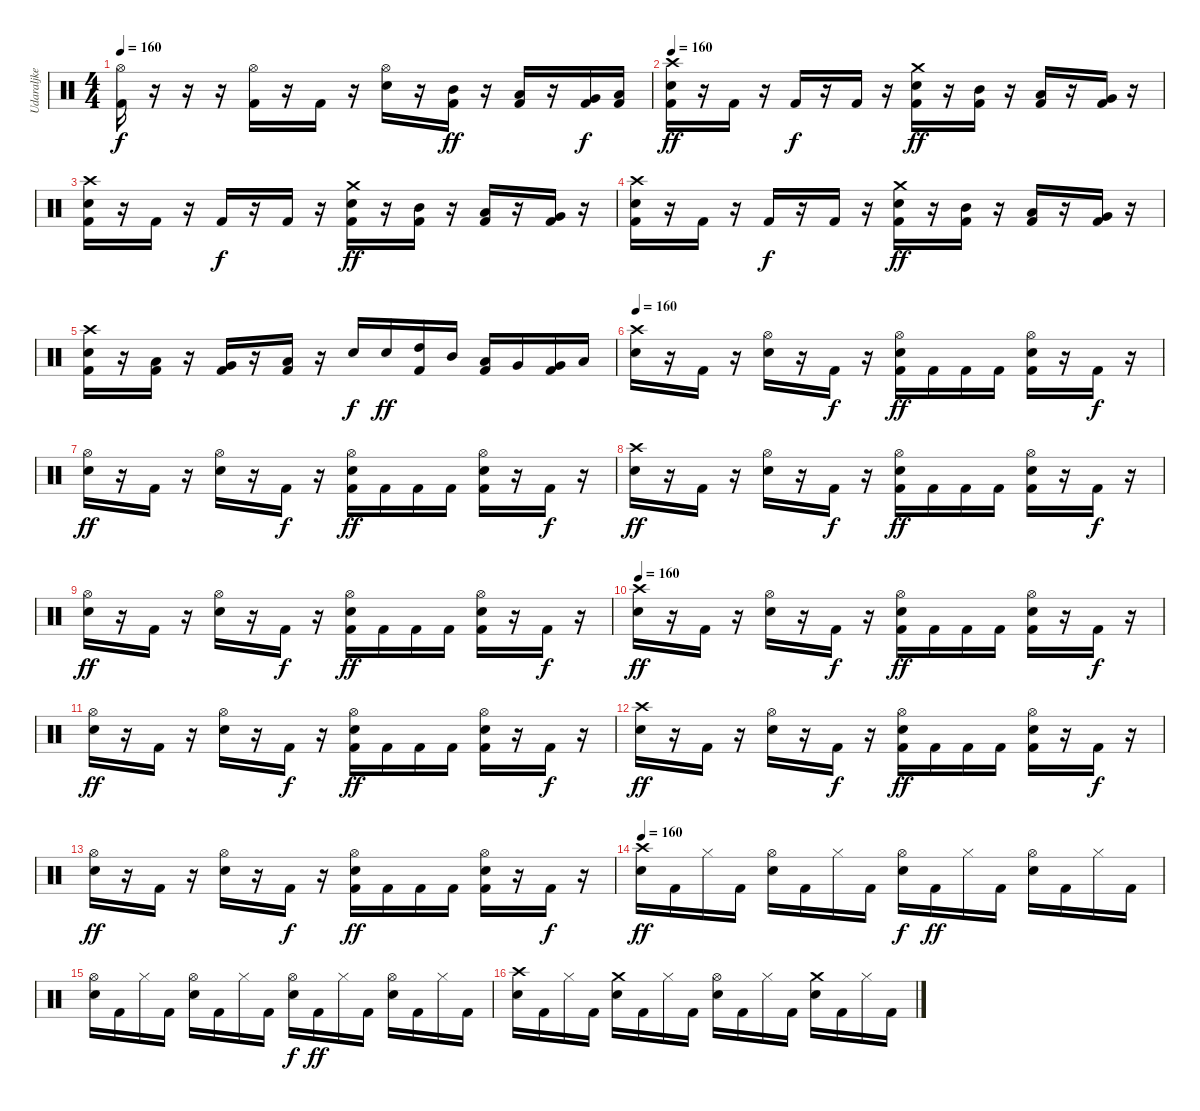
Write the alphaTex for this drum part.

\track ("Udaraljke" "Udaraljke") {instrument percussion}
\staff {score}
\articulation defaults
\ts (4 4)
\tempo 160
\clef neutral
\ks c
("Hi-Hat (open)" "Kick (hit) 2").16{dy f} r.16 r.16 r.16 ("Hi-Hat (open)" "Kick (hit) 2").16 r.16 "Kick (hit) 2".16 r.16 ("Hi-Hat (open)" "Snare (hit) 2").16 r.16 ("Mid Tom (hit)" "Kick (hit) 2").16{dy ff} r.16 ("Low Tom (hit)" "Kick (hit) 2").16 r.16 ("Very Low Tom (hit)" "Kick (hit) 2").16{dy f} ("Low Floor Tom (hit)" "Kick (hit) 2").16 |
\tempo 160
("Crash high (hit)" "Snare (hit) 2" "Kick (hit) 2").16{dy ff} r.16 "Kick (hit) 2".16 r.16 "Kick (hit) 2".16{dy f} r.16 "Kick (hit) 2".16 r.16 ("Crash medium (hit)" "Snare (hit) 2" "Kick (hit) 2").16{dy ff} r.16 ("Mid Tom (hit)" "Kick (hit) 2").16 r.16 ("Low Tom (hit)" "Kick (hit) 2").16 r.16 ("Very Low Tom (hit)" "Kick (hit) 2").16 r.16 |
("Crash high (hit)" "Snare (hit) 2" "Kick (hit) 2").16 r.16 "Kick (hit) 2".16 r.16 "Kick (hit) 2".16{dy f} r.16 "Kick (hit) 2".16 r.16 ("Crash medium (hit)" "Snare (hit) 2" "Kick (hit) 2").16{dy ff} r.16 ("Mid Tom (hit)" "Kick (hit) 2").16 r.16 ("Low Tom (hit)" "Kick (hit) 2").16 r.16 ("Very Low Tom (hit)" "Kick (hit) 2").16 r.16 |
("Crash high (hit)" "Snare (hit) 2" "Kick (hit) 2").16 r.16 "Kick (hit) 2".16 r.16 "Kick (hit) 2".16{dy f} r.16 "Kick (hit) 2".16 r.16 ("Crash medium (hit)" "Snare (hit) 2" "Kick (hit) 2").16{dy ff} r.16 ("Mid Tom (hit)" "Kick (hit) 2").16 r.16 ("Low Tom (hit)" "Kick (hit) 2").16 r.16 ("Very Low Tom (hit)" "Kick (hit) 2").16 r.16 |
("Crash high (hit)" "Snare (hit) 2" "Kick (hit) 2").16 r.16 ("Low Tom (hit)" "Kick (hit) 2").16 r.16 ("Very Low Tom (hit)" "Kick (hit) 2").16 r.16 ("Low Floor Tom (hit)" "Kick (hit) 2").16 r.16 "Snare (hit) 2".16{dy f} "Snare (hit) 2".16{dy ff} ("High Tom (hit)" "Kick (hit) 2").16 "Mid Tom (hit)".16 ("Low Tom (hit)" "Kick (hit) 2").16 "Very Low Tom (hit)".16 ("Very Low Tom (hit)" "Kick (hit) 2").16 "Low Floor Tom (hit)".16 |
\tempo 160
("Crash high (hit)" "Snare (hit) 2").16 r.16 "Kick (hit) 2".16 r.16 ("Hi-Hat (open)" "Snare (hit) 2").16 r.16 "Kick (hit) 2".16{dy f} r.16 ("Hi-Hat (open)" "Snare (hit) 2" "Kick (hit) 2").16{dy ff} "Kick (hit) 2".16 "Kick (hit) 2".16 "Kick (hit) 2".16 ("Hi-Hat (open)" "Snare (hit) 2" "Kick (hit) 2").16 r.16 "Kick (hit) 2".16{dy f} r.16 |
("Hi-Hat (open)" "Snare (hit) 2").16{dy ff} r.16 "Kick (hit) 2".16 r.16 ("Hi-Hat (open)" "Snare (hit) 2").16 r.16 "Kick (hit) 2".16{dy f} r.16 ("Hi-Hat (open)" "Snare (hit) 2" "Kick (hit) 2").16{dy ff} "Kick (hit) 2".16 "Kick (hit) 2".16 "Kick (hit) 2".16 ("Hi-Hat (open)" "Snare (hit) 2" "Kick (hit) 2").16 r.16 "Kick (hit) 2".16{dy f} r.16 |
("Crash high (hit)" "Snare (hit) 2").16{dy ff} r.16 "Kick (hit) 2".16 r.16 ("Hi-Hat (open)" "Snare (hit) 2").16 r.16 "Kick (hit) 2".16{dy f} r.16 ("Hi-Hat (open)" "Snare (hit) 2" "Kick (hit) 2").16{dy ff} "Kick (hit) 2".16 "Kick (hit) 2".16 "Kick (hit) 2".16 ("Hi-Hat (open)" "Snare (hit) 2" "Kick (hit) 2").16 r.16 "Kick (hit) 2".16{dy f} r.16 |
("Hi-Hat (open)" "Snare (hit) 2").16{dy ff} r.16 "Kick (hit) 2".16 r.16 ("Hi-Hat (open)" "Snare (hit) 2").16 r.16 "Kick (hit) 2".16{dy f} r.16 ("Hi-Hat (open)" "Snare (hit) 2" "Kick (hit) 2").16{dy ff} "Kick (hit) 2".16 "Kick (hit) 2".16 "Kick (hit) 2".16 ("Hi-Hat (open)" "Snare (hit) 2" "Kick (hit) 2").16 r.16 "Kick (hit) 2".16{dy f} r.16 |
\tempo 160
("Crash high (hit)" "Snare (hit) 2").16{dy ff} r.16 "Kick (hit) 2".16 r.16 ("Hi-Hat (open)" "Snare (hit) 2").16 r.16 "Kick (hit) 2".16{dy f} r.16 ("Hi-Hat (open)" "Snare (hit) 2" "Kick (hit) 2").16{dy ff} "Kick (hit) 2".16 "Kick (hit) 2".16 "Kick (hit) 2".16 ("Hi-Hat (open)" "Snare (hit) 2" "Kick (hit) 2").16 r.16 "Kick (hit) 2".16{dy f} r.16 |
("Hi-Hat (open)" "Snare (hit) 2").16{dy ff} r.16 "Kick (hit) 2".16 r.16 ("Hi-Hat (open)" "Snare (hit) 2").16 r.16 "Kick (hit) 2".16{dy f} r.16 ("Hi-Hat (open)" "Snare (hit) 2" "Kick (hit) 2").16{dy ff} "Kick (hit) 2".16 "Kick (hit) 2".16 "Kick (hit) 2".16 ("Hi-Hat (open)" "Snare (hit) 2" "Kick (hit) 2").16 r.16 "Kick (hit) 2".16{dy f} r.16 |
("Crash high (hit)" "Snare (hit) 2").16{dy ff} r.16 "Kick (hit) 2".16 r.16 ("Hi-Hat (open)" "Snare (hit) 2").16 r.16 "Kick (hit) 2".16{dy f} r.16 ("Hi-Hat (open)" "Snare (hit) 2" "Kick (hit) 2").16{dy ff} "Kick (hit) 2".16 "Kick (hit) 2".16 "Kick (hit) 2".16 ("Hi-Hat (open)" "Snare (hit) 2" "Kick (hit) 2").16 r.16 "Kick (hit) 2".16{dy f} r.16 |
("Hi-Hat (open)" "Snare (hit) 2").16{dy ff} r.16 "Kick (hit) 2".16 r.16 ("Hi-Hat (open)" "Snare (hit) 2").16 r.16 "Kick (hit) 2".16{dy f} r.16 ("Hi-Hat (open)" "Snare (hit) 2" "Kick (hit) 2").16{dy ff} "Kick (hit) 2".16 "Kick (hit) 2".16 "Kick (hit) 2".16 ("Hi-Hat (open)" "Snare (hit) 2" "Kick (hit) 2").16 r.16 "Kick (hit) 2".16{dy f} r.16 |
\tempo 160
("Crash high (hit)" "Snare (hit) 2").16{dy ff} "Kick (hit) 2".16 "Hi-Hat (closed)".16 "Kick (hit) 2".16 ("Hi-Hat (open)" "Snare (hit) 2").16 "Kick (hit) 2".16 "Hi-Hat (closed)".16 "Kick (hit) 2".16 ("Hi-Hat (open)" "Snare (hit) 2").16{dy f} "Kick (hit) 2".16{dy ff} "Hi-Hat (closed)".16 "Kick (hit) 2".16 ("Hi-Hat (open)" "Snare (hit) 2").16 "Kick (hit) 2".16 "Hi-Hat (closed)".16 "Kick (hit) 2".16 |
("Hi-Hat (open)" "Snare (hit) 2").16 "Kick (hit) 2".16 "Hi-Hat (closed)".16 "Kick (hit) 2".16 ("Hi-Hat (open)" "Snare (hit) 2").16 "Kick (hit) 2".16 "Hi-Hat (closed)".16 "Kick (hit) 2".16 ("Hi-Hat (open)" "Snare (hit) 2").16{dy f} "Kick (hit) 2".16{dy ff} "Hi-Hat (closed)".16 "Kick (hit) 2".16 ("Hi-Hat (open)" "Snare (hit) 2").16 "Kick (hit) 2".16 "Hi-Hat (closed)".16 "Kick (hit) 2".16 |
("Crash high (hit)" "Snare (hit) 2").16 "Kick (hit) 2".16 "Hi-Hat (closed)".16 "Kick (hit) 2".16 ("Crash medium (hit)" "Snare (hit) 2").16 "Kick (hit) 2".16 "Hi-Hat (closed)".16 "Kick (hit) 2".16 ("Hi-Hat (open)" "Snare (hit) 2").16 "Kick (hit) 2".16 "Hi-Hat (closed)".16 "Kick (hit) 2".16 ("Crash medium (hit)" "Snare (hit) 2").16 "Kick (hit) 2".16 "Hi-Hat (closed)".16 "Kick (hit) 2".16
